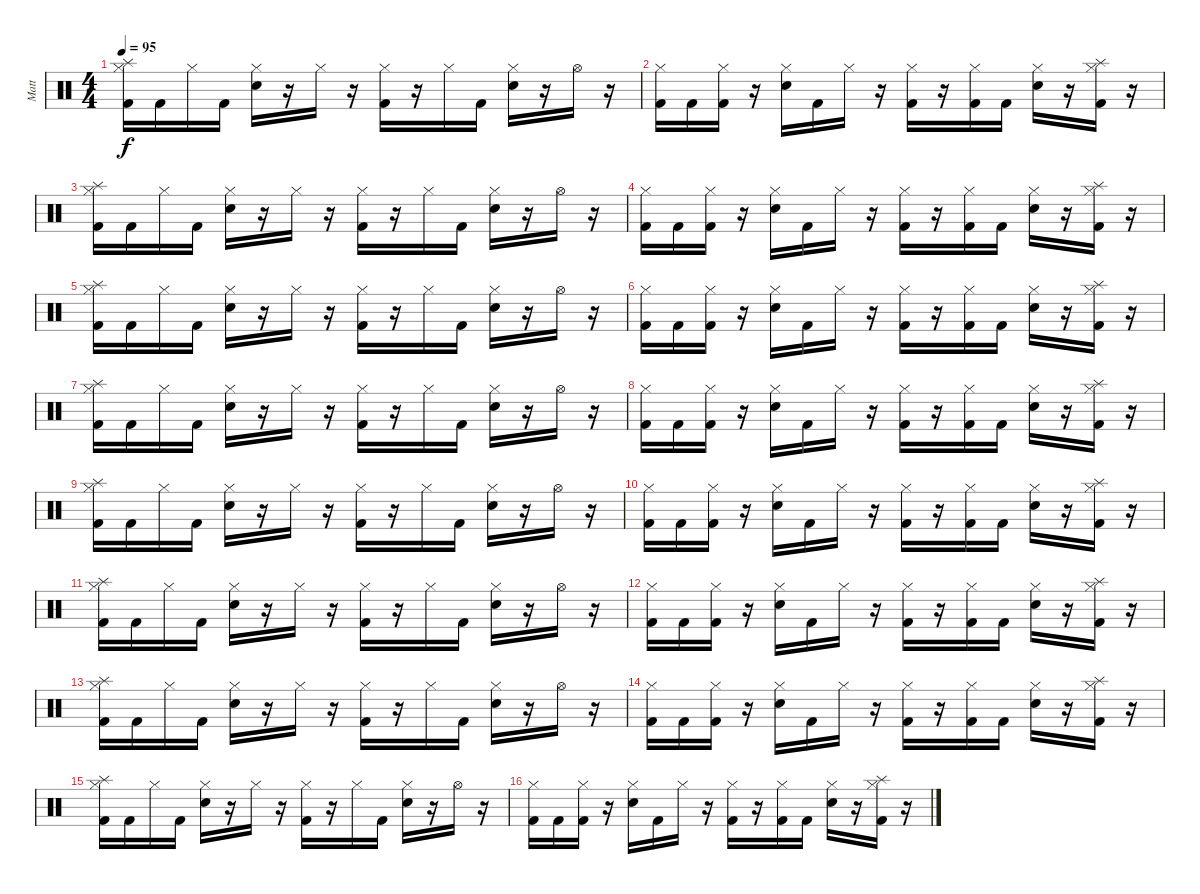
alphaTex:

\track ("Matt" "Matt") {instrument percussion}
\staff {score}
\articulation defaults
\ts (4 4)
\tempo 95
\clef neutral
\ks c
("Hi-Hat (closed)" "Splash (hit)" "Kick (hit) 2").16{dy f} "Kick (hit) 2".16 "Hi-Hat (closed)".16 "Kick (hit) 2".16 ("Hi-Hat (closed)" "Snare (hit) 2").16 r.16 "Hi-Hat (closed)".16 r.16 ("Hi-Hat (closed)" "Kick (hit) 2").16 r.16 "Hi-Hat (closed)".16 "Kick (hit) 2".16 ("Hi-Hat (closed)" "Snare (hit) 2").16 r.16 "Hi-Hat (open)".16 r.16 |
("Hi-Hat (closed)" "Kick (hit) 2").16 "Kick (hit) 2".16 ("Hi-Hat (closed)" "Kick (hit) 2").16 r.16 ("Hi-Hat (closed)" "Snare (hit) 2").16 "Kick (hit) 2".16 "Hi-Hat (closed)".16 r.16 ("Hi-Hat (closed)" "Kick (hit) 2").16 r.16 ("Hi-Hat (closed)" "Kick (hit) 2").16 "Kick (hit) 2".16 ("Hi-Hat (closed)" "Snare (hit) 2").16 r.16 ("Hi-Hat (closed)" "Kick (hit) 2" "Splash (hit)").16 r.16 |
("Hi-Hat (closed)" "Splash (hit)" "Kick (hit) 2").16 "Kick (hit) 2".16 "Hi-Hat (closed)".16 "Kick (hit) 2".16 ("Hi-Hat (closed)" "Snare (hit) 2").16 r.16 "Hi-Hat (closed)".16 r.16 ("Hi-Hat (closed)" "Kick (hit) 2").16 r.16 "Hi-Hat (closed)".16 "Kick (hit) 2".16 ("Hi-Hat (closed)" "Snare (hit) 2").16 r.16 "Hi-Hat (open)".16 r.16 |
("Hi-Hat (closed)" "Kick (hit) 2").16 "Kick (hit) 2".16 ("Hi-Hat (closed)" "Kick (hit) 2").16 r.16 ("Hi-Hat (closed)" "Snare (hit) 2").16 "Kick (hit) 2".16 "Hi-Hat (closed)".16 r.16 ("Hi-Hat (closed)" "Kick (hit) 2").16 r.16 ("Hi-Hat (closed)" "Kick (hit) 2").16 "Kick (hit) 2".16 ("Hi-Hat (closed)" "Snare (hit) 2").16 r.16 ("Hi-Hat (closed)" "Splash (hit)" "Kick (hit) 2").16 r.16 |
("Hi-Hat (closed)" "Splash (hit)" "Kick (hit) 2").16 "Kick (hit) 2".16 "Hi-Hat (closed)".16 "Kick (hit) 2".16 ("Hi-Hat (closed)" "Snare (hit) 2").16 r.16 "Hi-Hat (closed)".16 r.16 ("Hi-Hat (closed)" "Kick (hit) 2").16 r.16 "Hi-Hat (closed)".16 "Kick (hit) 2".16 ("Hi-Hat (closed)" "Snare (hit) 2").16 r.16 "Hi-Hat (open)".16 r.16 |
("Hi-Hat (closed)" "Kick (hit) 2").16 "Kick (hit) 2".16 ("Hi-Hat (closed)" "Kick (hit) 2").16 r.16 ("Hi-Hat (closed)" "Snare (hit) 2").16 "Kick (hit) 2".16 "Hi-Hat (closed)".16 r.16 ("Hi-Hat (closed)" "Kick (hit) 2").16 r.16 ("Hi-Hat (closed)" "Kick (hit) 2").16 "Kick (hit) 2".16 ("Hi-Hat (closed)" "Snare (hit) 2").16 r.16 ("Hi-Hat (closed)" "Kick (hit) 2" "Splash (hit)").16 r.16 |
("Hi-Hat (closed)" "Splash (hit)" "Kick (hit) 2").16 "Kick (hit) 2".16 "Hi-Hat (closed)".16 "Kick (hit) 2".16 ("Hi-Hat (closed)" "Snare (hit) 2").16 r.16 "Hi-Hat (closed)".16 r.16 ("Hi-Hat (closed)" "Kick (hit) 2").16 r.16 "Hi-Hat (closed)".16 "Kick (hit) 2".16 ("Hi-Hat (closed)" "Snare (hit) 2").16 r.16 "Hi-Hat (open)".16 r.16 |
("Hi-Hat (closed)" "Kick (hit) 2").16 "Kick (hit) 2".16 ("Hi-Hat (closed)" "Kick (hit) 2").16 r.16 ("Hi-Hat (closed)" "Snare (hit) 2").16 "Kick (hit) 2".16 "Hi-Hat (closed)".16 r.16 ("Hi-Hat (closed)" "Kick (hit) 2").16 r.16 ("Hi-Hat (closed)" "Kick (hit) 2").16 "Kick (hit) 2".16 ("Hi-Hat (closed)" "Snare (hit) 2").16 r.16 ("Hi-Hat (closed)" "Splash (hit)" "Kick (hit) 2").16 r.16 |
("Hi-Hat (closed)" "Splash (hit)" "Kick (hit) 2").16 "Kick (hit) 2".16 "Hi-Hat (closed)".16 "Kick (hit) 2".16 ("Hi-Hat (closed)" "Snare (hit) 2").16 r.16 "Hi-Hat (closed)".16 r.16 ("Hi-Hat (closed)" "Kick (hit) 2").16 r.16 "Hi-Hat (closed)".16 "Kick (hit) 2".16 ("Hi-Hat (closed)" "Snare (hit) 2").16 r.16 "Hi-Hat (open)".16 r.16 |
("Hi-Hat (closed)" "Kick (hit) 2").16 "Kick (hit) 2".16 ("Hi-Hat (closed)" "Kick (hit) 2").16 r.16 ("Hi-Hat (closed)" "Snare (hit) 2").16 "Kick (hit) 2".16 "Hi-Hat (closed)".16 r.16 ("Hi-Hat (closed)" "Kick (hit) 2").16 r.16 ("Hi-Hat (closed)" "Kick (hit) 2").16 "Kick (hit) 2".16 ("Hi-Hat (closed)" "Snare (hit) 2").16 r.16 ("Hi-Hat (closed)" "Kick (hit) 2" "Splash (hit)").16 r.16 |
("Hi-Hat (closed)" "Splash (hit)" "Kick (hit) 2").16 "Kick (hit) 2".16 "Hi-Hat (closed)".16 "Kick (hit) 2".16 ("Hi-Hat (closed)" "Snare (hit) 2").16 r.16 "Hi-Hat (closed)".16 r.16 ("Hi-Hat (closed)" "Kick (hit) 2").16 r.16 "Hi-Hat (closed)".16 "Kick (hit) 2".16 ("Hi-Hat (closed)" "Snare (hit) 2").16 r.16 "Hi-Hat (open)".16 r.16 |
("Hi-Hat (closed)" "Kick (hit) 2").16 "Kick (hit) 2".16 ("Hi-Hat (closed)" "Kick (hit) 2").16 r.16 ("Hi-Hat (closed)" "Snare (hit) 2").16 "Kick (hit) 2".16 "Hi-Hat (closed)".16 r.16 ("Hi-Hat (closed)" "Kick (hit) 2").16 r.16 ("Hi-Hat (closed)" "Kick (hit) 2").16 "Kick (hit) 2".16 ("Hi-Hat (closed)" "Snare (hit) 2").16 r.16 ("Hi-Hat (closed)" "Splash (hit)" "Kick (hit) 2").16 r.16 |
("Hi-Hat (closed)" "Splash (hit)" "Kick (hit) 2").16 "Kick (hit) 2".16 "Hi-Hat (closed)".16 "Kick (hit) 2".16 ("Hi-Hat (closed)" "Snare (hit) 2").16 r.16 "Hi-Hat (closed)".16 r.16 ("Hi-Hat (closed)" "Kick (hit) 2").16 r.16 "Hi-Hat (closed)".16 "Kick (hit) 2".16 ("Hi-Hat (closed)" "Snare (hit) 2").16 r.16 "Hi-Hat (open)".16 r.16 |
("Hi-Hat (closed)" "Kick (hit) 2").16 "Kick (hit) 2".16 ("Hi-Hat (closed)" "Kick (hit) 2").16 r.16 ("Hi-Hat (closed)" "Snare (hit) 2").16 "Kick (hit) 2".16 "Hi-Hat (closed)".16 r.16 ("Hi-Hat (closed)" "Kick (hit) 2").16 r.16 ("Hi-Hat (closed)" "Kick (hit) 2").16 "Kick (hit) 2".16 ("Hi-Hat (closed)" "Snare (hit) 2").16 r.16 ("Hi-Hat (closed)" "Kick (hit) 2" "Splash (hit)").16 r.16 |
("Hi-Hat (closed)" "Splash (hit)" "Kick (hit) 2").16 "Kick (hit) 2".16 "Hi-Hat (closed)".16 "Kick (hit) 2".16 ("Hi-Hat (closed)" "Snare (hit) 2").16 r.16 "Hi-Hat (closed)".16 r.16 ("Hi-Hat (closed)" "Kick (hit) 2").16 r.16 "Hi-Hat (closed)".16 "Kick (hit) 2".16 ("Hi-Hat (closed)" "Snare (hit) 2").16 r.16 "Hi-Hat (open)".16 r.16 |
("Hi-Hat (closed)" "Kick (hit) 2").16 "Kick (hit) 2".16 ("Hi-Hat (closed)" "Kick (hit) 2").16 r.16 ("Hi-Hat (closed)" "Snare (hit) 2").16 "Kick (hit) 2".16 "Hi-Hat (closed)".16 r.16 ("Hi-Hat (closed)" "Kick (hit) 2").16 r.16 ("Hi-Hat (closed)" "Kick (hit) 2").16 "Kick (hit) 2".16 ("Hi-Hat (closed)" "Snare (hit) 2").16 r.16 ("Hi-Hat (closed)" "Splash (hit)" "Kick (hit) 2").16 r.16
